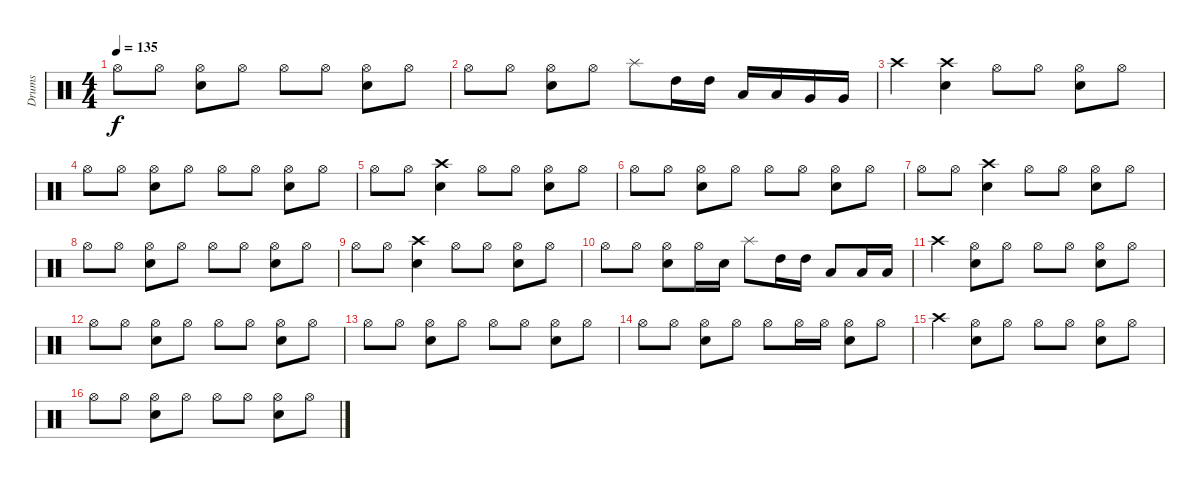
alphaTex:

\track ("Drums" "Drums") {instrument percussion}
\staff {score}
\articulation defaults
\ts (4 4)
\tempo 135
\clef neutral
\ks c "Hi-Hat (open)".8{dy f} "Hi-Hat (open)".8
("Hi-Hat (open)" "Snare (hit) 2").8 "Hi-Hat (open)".8 "Hi-Hat (open)".8 "Hi-Hat (open)".8 ("Hi-Hat (open)" "Snare (hit) 2").8 "Hi-Hat (open)".8 |
"Hi-Hat (open)".8 "Hi-Hat (open)".8 ("Hi-Hat (open)" "Snare (hit) 2").8 "Hi-Hat (open)".8 "Splash (hit)".8 "High Tom (hit)".16 "High Tom (hit)".16 "Low Tom (hit)".16 "Low Tom (hit)".16 "Very Low Tom (hit)".16 "Very Low Tom (hit)".16 |
"Crash high (hit)".4 ("Crash high (hit)" "Snare (hit) 2").4 "Hi-Hat (open)".8 "Hi-Hat (open)".8 ("Hi-Hat (open)" "Snare (hit) 2").8 "Hi-Hat (open)".8 |
"Hi-Hat (open)".8 "Hi-Hat (open)".8 ("Hi-Hat (open)" "Snare (hit) 2").8 "Hi-Hat (open)".8 "Hi-Hat (open)".8 "Hi-Hat (open)".8 ("Hi-Hat (open)" "Snare (hit) 2").8 "Hi-Hat (open)".8 |
"Hi-Hat (open)".8 "Hi-Hat (open)".8 ("Crash high (hit)" "Snare (hit) 2").4 "Hi-Hat (open)".8 "Hi-Hat (open)".8 ("Hi-Hat (open)" "Snare (hit) 2").8 "Hi-Hat (open)".8 |
"Hi-Hat (open)".8 "Hi-Hat (open)".8 ("Hi-Hat (open)" "Snare (hit) 2").8 "Hi-Hat (open)".8 "Hi-Hat (open)".8 "Hi-Hat (open)".8 ("Hi-Hat (open)" "Snare (hit) 2").8 "Hi-Hat (open)".8 |
"Hi-Hat (open)".8 "Hi-Hat (open)".8 ("Crash high (hit)" "Snare (hit) 2").4 "Hi-Hat (open)".8 "Hi-Hat (open)".8 ("Hi-Hat (open)" "Snare (hit) 2").8 "Hi-Hat (open)".8 |
"Hi-Hat (open)".8 "Hi-Hat (open)".8 ("Hi-Hat (open)" "Snare (hit) 2").8 "Hi-Hat (open)".8 "Hi-Hat (open)".8 "Hi-Hat (open)".8 ("Hi-Hat (open)" "Snare (hit) 2").8 "Hi-Hat (open)".8 |
"Hi-Hat (open)".8 "Hi-Hat (open)".8 ("Crash high (hit)" "Snare (hit) 2").4 "Hi-Hat (open)".8 "Hi-Hat (open)".8 ("Hi-Hat (open)" "Snare (hit) 2").8 "Hi-Hat (open)".8 |
"Hi-Hat (open)".8 "Hi-Hat (open)".8 ("Hi-Hat (open)" "Snare (hit) 2").8 "Hi-Hat (open)".16 "Snare (hit) 2".16 "Splash (hit)".8 "High Tom (hit)".16 "High Tom (hit)".16 "Low Tom (hit)".8 "Low Tom (hit)".16 "Low Tom (hit)".16 |
"Crash high (hit)".4 ("Hi-Hat (open)" "Snare (hit) 2").8 "Hi-Hat (open)".8 "Hi-Hat (open)".8 "Hi-Hat (open)".8 ("Hi-Hat (open)" "Snare (hit) 2").8 "Hi-Hat (open)".8 |
"Hi-Hat (open)".8 "Hi-Hat (open)".8 ("Hi-Hat (open)" "Snare (hit) 2").8 "Hi-Hat (open)".8 "Hi-Hat (open)".8 "Hi-Hat (open)".8 ("Hi-Hat (open)" "Snare (hit) 2").8 "Hi-Hat (open)".8 |
"Hi-Hat (open)".8 "Hi-Hat (open)".8 ("Hi-Hat (open)" "Snare (hit) 2").8 "Hi-Hat (open)".8 "Hi-Hat (open)".8 "Hi-Hat (open)".8 ("Hi-Hat (open)" "Snare (hit) 2").8 "Hi-Hat (open)".8 |
"Hi-Hat (open)".8 "Hi-Hat (open)".8 ("Hi-Hat (open)" "Snare (hit) 2").8 "Hi-Hat (open)".8 "Hi-Hat (open)".8 "Hi-Hat (open)".16 "Hi-Hat (open)".16 ("Hi-Hat (open)" "Snare (hit) 2").8 "Hi-Hat (open)".8 |
"Crash high (hit)".4 ("Hi-Hat (open)" "Snare (hit) 2").8 "Hi-Hat (open)".8 "Hi-Hat (open)".8 "Hi-Hat (open)".8 ("Hi-Hat (open)" "Snare (hit) 2").8 "Hi-Hat (open)".8 |
"Hi-Hat (open)".8 "Hi-Hat (open)".8 ("Hi-Hat (open)" "Snare (hit) 2").8 "Hi-Hat (open)".8 "Hi-Hat (open)".8 "Hi-Hat (open)".8 ("Hi-Hat (open)" "Snare (hit) 2").8 "Hi-Hat (open)".8
